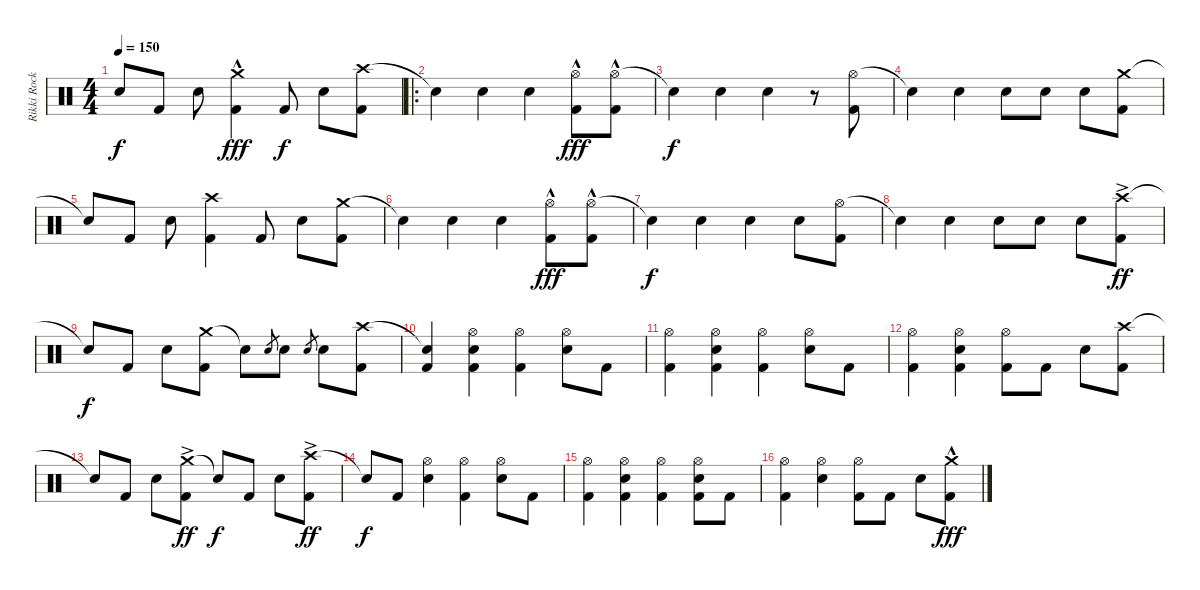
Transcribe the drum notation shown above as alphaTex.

\track ("Rikki Rockett - Drums" "Rikki Rock") {instrument percussion}
\staff {score}
\articulation defaults
\ts (4 4)
\tempo 150
\clef neutral
\ks c "Snare (hit)"{t}.8{dy f} "Kick (hit) 2".8 "Electric Snare (hit)".8
("Crash medium (hit)"{hac} "Kick (hit) 2").4{dy fff} "Kick (hit) 2".8{dy f} "Electric Snare (hit)".8 ("Crash high (hit)" "Kick (hit) 2").8 |
\ro "Snare (hit)"{t}.4 "Electric Snare (hit)".4 "Electric Snare (hit)".4
("Hi-Hat (open)"{hac} "Kick (hit) 2"{hac}).8{dy fff} ("Hi-Hat (open)"{hac} "Kick (hit) 2"{hac}).8 |
"Snare (hit)"{t}.4{dy f} "Electric Snare (hit)".4 "Electric Snare (hit)".4 r.8 ("Hi-Hat (open)" "Kick (hit) 2").8 |
"Snare (hit)"{t}.4 "Electric Snare (hit)".4 "Electric Snare (hit)".8 "Electric Snare (hit)".8 "Electric Snare (hit)".8 ("Crash medium (hit)" "Kick (hit) 2").8 |
"Snare (hit)"{t}.8 "Kick (hit) 2".8 "Electric Snare (hit)".8 ("Crash high (hit)" "Kick (hit) 2").4 "Kick (hit) 2".8 "Electric Snare (hit)".8 ("Crash medium (hit)" "Kick (hit) 2").8 |
"Snare (hit)"{t}.4 "Electric Snare (hit)".4 "Electric Snare (hit)".4 ("Hi-Hat (open)"{hac} "Kick (hit) 2"{hac}).8{dy fff} ("Hi-Hat (open)"{hac} "Kick (hit) 2"{hac}).8 |
"Snare (hit)"{t}.4{dy f} "Electric Snare (hit)".4 "Electric Snare (hit)".4 "Electric Snare (hit)".8 ("Hi-Hat (open)" "Kick (hit) 2").8 |
"Snare (hit)"{t}.4 "Electric Snare (hit)".4 "Electric Snare (hit)".8 "Electric Snare (hit)".8 "Electric Snare (hit)".8 ("Crash high (hit)"{ac} "Kick (hit) 2").8{dy ff} |
"Snare (hit)"{t}.8{dy f} "Kick (hit) 2".8 "Electric Snare (hit)".8 ("Crash medium (hit)" "Kick (hit) 2").8 "Snare (hit)"{t}.8 "Electric Snare (hit)".8{gr} "Electric Snare (hit)".8 "Electric Snare (hit)".8{gr} "Electric Snare (hit)".8 ("Crash high (hit)" "Kick (hit) 2").8 |
("Snare (hit)"{t} "Kick (hit) 2").4 ("Hi-Hat (open)" "Electric Snare (hit)" "Kick (hit) 2").4 ("Hi-Hat (open)" "Kick (hit) 2").4 ("Hi-Hat (open)" "Electric Snare (hit)").8 "Kick (hit) 2".8 |
("Hi-Hat (open)" "Kick (hit) 2").4 ("Hi-Hat (open)" "Electric Snare (hit)" "Kick (hit) 2").4 ("Hi-Hat (open)" "Kick (hit) 2").4 ("Hi-Hat (open)" "Electric Snare (hit)").8 "Kick (hit) 2".8 |
("Hi-Hat (open)" "Kick (hit) 2").4 ("Hi-Hat (open)" "Electric Snare (hit)" "Kick (hit) 2").4 ("Hi-Hat (open)" "Kick (hit) 2").8 "Kick (hit) 2".8 "Electric Snare (hit)".8 ("Crash high (hit)" "Kick (hit) 2").8 |
"Snare (hit)"{t}.8 "Kick (hit) 2".8 "Electric Snare (hit)".8 ("Crash medium (hit)"{ac} "Kick (hit) 2").8{dy ff} "Snare (hit)"{t}.8{dy f} "Kick (hit) 2".8 "Electric Snare (hit)".8 ("Crash high (hit)"{ac} "Kick (hit) 2").8{dy ff} |
"Snare (hit)"{t}.8{dy f} "Kick (hit) 2".8 ("Hi-Hat (open)" "Electric Snare (hit)").4 ("Hi-Hat (open)" "Kick (hit) 2").4 ("Hi-Hat (open)" "Electric Snare (hit)").8 "Kick (hit) 2".8 |
("Hi-Hat (open)" "Kick (hit) 2").4 ("Hi-Hat (open)" "Electric Snare (hit)" "Kick (hit) 2").4 ("Hi-Hat (open)" "Kick (hit) 2").4 ("Hi-Hat (open)" "Electric Snare (hit)" "Kick (hit) 2").8 "Kick (hit) 2".8 |
("Hi-Hat (open)" "Kick (hit) 2").4 ("Hi-Hat (open)" "Electric Snare (hit)").4 ("Hi-Hat (open)" "Kick (hit) 2").8 "Kick (hit) 2".8 "Electric Snare (hit)".8 ("Crash medium (hit)"{hac} "Kick (hit) 2").8{dy fff}
